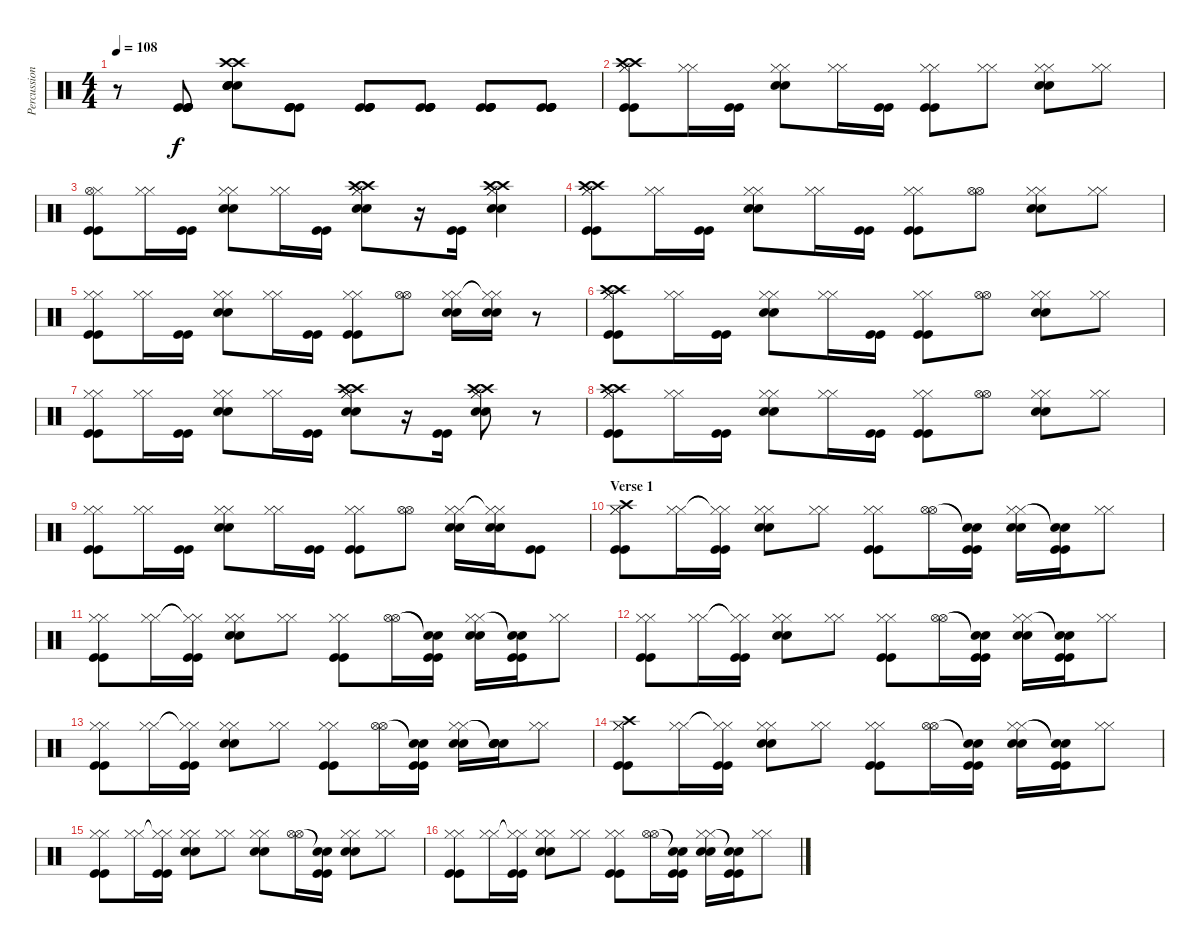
\track ("Percussion" "Percussion") {instrument percussion}
\staff {score}
\articulation defaults
\ts (4 4)
\tempo 108
\clef neutral
\ks c
r.8{dy f} ("Kick (hit)" "Kick (hit)" "Kick (hit)" "Kick (hit)").8 ("Crash high (hit)" "Crash high (hit)" "Electric Snare (hit)" "Electric Snare (hit)" "Electric Snare (hit)" "Electric Snare (hit)").8 ("Kick (hit)" "Kick (hit)" "Kick (hit)" "Kick (hit)").8 ("Kick (hit)" "Kick (hit)" "Kick (hit)" "Kick (hit)").8 ("Kick (hit)" "Kick (hit)" "Kick (hit)" "Kick (hit)").8 ("Kick (hit)" "Kick (hit)" "Kick (hit)" "Kick (hit)").8 ("Kick (hit)" "Kick (hit)" "Kick (hit)" "Kick (hit)").8 |
("Hi-Hat (closed)" "Hi-Hat (closed)" "Kick (hit)" "Kick (hit)" "Crash high (hit)" "Crash high (hit)").8 ("Hi-Hat (closed)" "Hi-Hat (closed)").16 ("Kick (hit)" "Kick (hit)").16 ("Hi-Hat (closed)" "Hi-Hat (closed)" "Electric Snare (hit)" "Electric Snare (hit)").8 ("Hi-Hat (closed)" "Hi-Hat (closed)").16 ("Kick (hit)" "Kick (hit)").16 ("Hi-Hat (closed)" "Hi-Hat (closed)" "Kick (hit)" "Kick (hit)").8 ("Hi-Hat (closed)" "Hi-Hat (closed)").8 ("Hi-Hat (closed)" "Hi-Hat (closed)" "Electric Snare (hit)" "Electric Snare (hit)").8 ("Hi-Hat (closed)" "Hi-Hat (closed)").8 |
("Hi-Hat (closed)" "Hi-Hat (open)" "Kick (hit)" "Kick (hit)").8 ("Hi-Hat (closed)" "Hi-Hat (closed)").16 ("Kick (hit)" "Kick (hit)").16 ("Hi-Hat (closed)" "Hi-Hat (closed)" "Electric Snare (hit)" "Electric Snare (hit)").8 ("Hi-Hat (closed)" "Hi-Hat (closed)").16 ("Kick (hit)" "Kick (hit)").16 ("Hi-Hat (closed)" "Hi-Hat (closed)" "Electric Snare (hit)" "Electric Snare (hit)" "Crash high (hit)" "Crash high (hit)").8 r.16 ("Kick (hit)" "Kick (hit)").16 ("Hi-Hat (closed)" "Hi-Hat (closed)" "Electric Snare (hit)" "Electric Snare (hit)" "Crash high (hit)" "Crash high (hit)").4 |
("Hi-Hat (closed)" "Hi-Hat (closed)" "Kick (hit)" "Kick (hit)" "Crash high (hit)" "Crash high (hit)").8 ("Hi-Hat (closed)" "Hi-Hat (closed)").16 ("Kick (hit)" "Kick (hit)").16 ("Hi-Hat (closed)" "Hi-Hat (closed)" "Electric Snare (hit)" "Electric Snare (hit)").8 ("Hi-Hat (closed)" "Hi-Hat (closed)").16 ("Kick (hit)" "Kick (hit)").16 ("Hi-Hat (closed)" "Hi-Hat (closed)" "Kick (hit)" "Kick (hit)").8 ("Hi-Hat (open)" "Hi-Hat (open)").8 ("Hi-Hat (closed)" "Hi-Hat (closed)" "Electric Snare (hit)" "Electric Snare (hit)").8 ("Hi-Hat (closed)" "Hi-Hat (closed)").8 |
("Hi-Hat (closed)" "Hi-Hat (closed)" "Kick (hit)" "Kick (hit)").8 ("Hi-Hat (closed)" "Hi-Hat (closed)").16 ("Kick (hit)" "Kick (hit)").16 ("Hi-Hat (closed)" "Hi-Hat (closed)" "Electric Snare (hit)" "Electric Snare (hit)").8 ("Hi-Hat (closed)" "Hi-Hat (closed)").16 ("Kick (hit)" "Kick (hit)").16 ("Hi-Hat (closed)" "Hi-Hat (closed)" "Kick (hit)" "Kick (hit)").8 ("Hi-Hat (open)" "Hi-Hat (open)").8 ("Hi-Hat (closed)" "Hi-Hat (closed)" "Electric Snare (hit)" "Electric Snare (hit)").16 ("Hi-Hat (closed)"{t} "Hi-Hat (closed)"{t} "Electric Snare (hit)" "Electric Snare (hit)").16 r.8 |
("Hi-Hat (closed)" "Hi-Hat (closed)" "Kick (hit)" "Kick (hit)" "Crash high (hit)" "Crash high (hit)").8 ("Hi-Hat (closed)" "Hi-Hat (closed)").16 ("Kick (hit)" "Kick (hit)").16 ("Hi-Hat (closed)" "Hi-Hat (closed)" "Electric Snare (hit)" "Electric Snare (hit)").8 ("Hi-Hat (closed)" "Hi-Hat (closed)").16 ("Kick (hit)" "Kick (hit)").16 ("Hi-Hat (closed)" "Hi-Hat (closed)" "Kick (hit)" "Kick (hit)").8 ("Hi-Hat (open)" "Hi-Hat (open)").8 ("Hi-Hat (closed)" "Hi-Hat (closed)" "Electric Snare (hit)" "Electric Snare (hit)").8 ("Hi-Hat (closed)" "Hi-Hat (closed)").8 |
("Hi-Hat (closed)" "Hi-Hat (closed)" "Kick (hit)" "Kick (hit)").8 ("Hi-Hat (closed)" "Hi-Hat (closed)").16 ("Kick (hit)" "Kick (hit)").16 ("Hi-Hat (closed)" "Hi-Hat (closed)" "Electric Snare (hit)" "Electric Snare (hit)").8 ("Hi-Hat (closed)" "Hi-Hat (closed)").16 ("Kick (hit)" "Kick (hit)").16 ("Hi-Hat (closed)" "Hi-Hat (closed)" "Electric Snare (hit)" "Electric Snare (hit)" "Crash high (hit)" "Crash high (hit)").8 r.16 ("Kick (hit)" "Kick (hit)").16 ("Hi-Hat (closed)" "Hi-Hat (closed)" "Electric Snare (hit)" "Electric Snare (hit)" "Crash high (hit)" "Crash high (hit)").8 r.8 |
("Hi-Hat (closed)" "Hi-Hat (closed)" "Kick (hit)" "Kick (hit)" "Crash high (hit)" "Crash high (hit)").8 ("Hi-Hat (closed)" "Hi-Hat (closed)").16 ("Kick (hit)" "Kick (hit)").16 ("Hi-Hat (closed)" "Hi-Hat (closed)" "Electric Snare (hit)" "Electric Snare (hit)").8 ("Hi-Hat (closed)" "Hi-Hat (closed)").16 ("Kick (hit)" "Kick (hit)").16 ("Hi-Hat (closed)" "Hi-Hat (closed)" "Kick (hit)" "Kick (hit)").8 ("Hi-Hat (open)" "Hi-Hat (open)").8 ("Hi-Hat (closed)" "Hi-Hat (closed)" "Electric Snare (hit)" "Electric Snare (hit)").8 ("Hi-Hat (closed)" "Hi-Hat (closed)").8 |
("Hi-Hat (closed)" "Hi-Hat (closed)" "Kick (hit)" "Kick (hit)").8 ("Hi-Hat (closed)" "Hi-Hat (closed)").16 ("Kick (hit)" "Kick (hit)").16 ("Hi-Hat (closed)" "Hi-Hat (closed)" "Electric Snare (hit)" "Electric Snare (hit)").8 ("Hi-Hat (closed)" "Hi-Hat (closed)").16 ("Kick (hit)" "Kick (hit)").16 ("Hi-Hat (closed)" "Hi-Hat (closed)" "Kick (hit)" "Kick (hit)").8 ("Hi-Hat (open)" "Hi-Hat (open)").8 ("Hi-Hat (closed)" "Hi-Hat (closed)" "Electric Snare (hit)" "Electric Snare (hit)").16 ("Hi-Hat (closed)"{t} "Hi-Hat (closed)"{t} "Electric Snare (hit)" "Electric Snare (hit)").16 ("Kick (hit)" "Kick (hit)").8 |
\section ("" "Verse 1")
("Hi-Hat (closed)" "Hi-Hat (closed)" "Kick (hit)" "Kick (hit)" "Crash high (hit)").8 ("Hi-Hat (closed)" "Hi-Hat (closed)").16 ("Hi-Hat (closed)"{t} "Hi-Hat (closed)"{t} "Kick (hit)" "Kick (hit)").16 ("Hi-Hat (closed)" "Hi-Hat (closed)" "Electric Snare (hit)" "Electric Snare (hit)").8 ("Hi-Hat (closed)" "Hi-Hat (closed)").8 ("Hi-Hat (closed)" "Hi-Hat (closed)" "Kick (hit)" "Kick (hit)").8 ("Hi-Hat (open)" "Hi-Hat (open)").16 ("Snare (hit)"{t} "Snare (hit)"{t} "Kick (hit)" "Kick (hit)").16 ("Hi-Hat (closed)" "Hi-Hat (closed)" "Electric Snare (hit)" "Electric Snare (hit)").16 ("Snare (hit)"{t} "Snare (hit)"{t} "Kick (hit)" "Kick (hit)").16 ("Hi-Hat (closed)" "Hi-Hat (closed)").8 |
("Hi-Hat (closed)" "Hi-Hat (closed)" "Kick (hit)" "Kick (hit)").8 ("Hi-Hat (closed)" "Hi-Hat (closed)").16 ("Hi-Hat (closed)"{t} "Hi-Hat (closed)"{t} "Kick (hit)" "Kick (hit)").16 ("Hi-Hat (closed)" "Hi-Hat (closed)" "Electric Snare (hit)" "Electric Snare (hit)").8 ("Hi-Hat (closed)" "Hi-Hat (closed)").8 ("Hi-Hat (closed)" "Hi-Hat (closed)" "Kick (hit)" "Kick (hit)").8 ("Hi-Hat (open)" "Hi-Hat (open)").16 ("Snare (hit)"{t} "Snare (hit)"{t} "Kick (hit)" "Kick (hit)").16 ("Hi-Hat (closed)" "Hi-Hat (closed)" "Electric Snare (hit)" "Electric Snare (hit)").16 ("Snare (hit)"{t} "Snare (hit)"{t} "Kick (hit)" "Kick (hit)").16 ("Hi-Hat (closed)" "Hi-Hat (closed)").8 |
("Hi-Hat (closed)" "Hi-Hat (closed)" "Kick (hit)" "Kick (hit)").8 ("Hi-Hat (closed)" "Hi-Hat (closed)").16 ("Hi-Hat (closed)"{t} "Hi-Hat (closed)"{t} "Kick (hit)" "Kick (hit)").16 ("Hi-Hat (closed)" "Hi-Hat (closed)" "Electric Snare (hit)" "Electric Snare (hit)").8 ("Hi-Hat (closed)" "Hi-Hat (closed)").8 ("Hi-Hat (closed)" "Hi-Hat (closed)" "Kick (hit)" "Kick (hit)").8 ("Hi-Hat (open)" "Hi-Hat (open)").16 ("Snare (hit)"{t} "Snare (hit)"{t} "Kick (hit)" "Kick (hit)").16 ("Hi-Hat (closed)" "Hi-Hat (closed)" "Electric Snare (hit)" "Electric Snare (hit)").16 ("Snare (hit)"{t} "Snare (hit)"{t} "Kick (hit)" "Kick (hit)").16 ("Hi-Hat (closed)" "Hi-Hat (closed)").8 |
("Hi-Hat (closed)" "Hi-Hat (closed)" "Kick (hit)" "Kick (hit)").8 ("Hi-Hat (closed)" "Hi-Hat (closed)").16 ("Hi-Hat (closed)"{t} "Hi-Hat (closed)"{t} "Kick (hit)" "Kick (hit)").16 ("Hi-Hat (closed)" "Hi-Hat (closed)" "Electric Snare (hit)" "Electric Snare (hit)").8 ("Hi-Hat (closed)" "Hi-Hat (closed)").8 ("Hi-Hat (closed)" "Hi-Hat (closed)" "Kick (hit)" "Kick (hit)").8 ("Hi-Hat (open)" "Hi-Hat (open)").16 ("Snare (hit)"{t} "Snare (hit)"{t} "Kick (hit)" "Kick (hit)").16 ("Hi-Hat (closed)" "Hi-Hat (closed)" "Electric Snare (hit)" "Electric Snare (hit)").16 ("Snare (hit)"{t} "Snare (hit)"{t} "Electric Snare (hit)" "Electric Snare (hit)").16 ("Hi-Hat (closed)" "Hi-Hat (closed)").8 |
("Hi-Hat (closed)" "Hi-Hat (closed)" "Kick (hit)" "Kick (hit)" "Crash high (hit)").8 ("Hi-Hat (closed)" "Hi-Hat (closed)").16 ("Hi-Hat (closed)"{t} "Hi-Hat (closed)"{t} "Kick (hit)" "Kick (hit)").16 ("Hi-Hat (closed)" "Hi-Hat (closed)" "Electric Snare (hit)" "Electric Snare (hit)").8 ("Hi-Hat (closed)" "Hi-Hat (closed)").8 ("Hi-Hat (closed)" "Hi-Hat (closed)" "Kick (hit)" "Kick (hit)").8 ("Hi-Hat (open)" "Hi-Hat (open)").16 ("Snare (hit)"{t} "Snare (hit)"{t} "Kick (hit)" "Kick (hit)").16 ("Hi-Hat (closed)" "Hi-Hat (closed)" "Electric Snare (hit)" "Electric Snare (hit)").16 ("Snare (hit)"{t} "Snare (hit)"{t} "Kick (hit)" "Kick (hit)").16 ("Hi-Hat (closed)" "Hi-Hat (closed)").8 |
("Hi-Hat (closed)" "Hi-Hat (closed)" "Kick (hit)" "Kick (hit)").8 ("Hi-Hat (closed)" "Hi-Hat (closed)").16 ("Hi-Hat (closed)"{t} "Hi-Hat (closed)"{t} "Kick (hit)" "Kick (hit)").16 ("Hi-Hat (closed)" "Hi-Hat (closed)" "Electric Snare (hit)" "Electric Snare (hit)").8 ("Hi-Hat (closed)" "Hi-Hat (closed)").8 ("Hi-Hat (closed)" "Hi-Hat (closed)" "Electric Snare (hit)" "Electric Snare (hit)").8 ("Hi-Hat (open)" "Hi-Hat (open)").16 ("Snare (hit)"{t} "Snare (hit)"{t} "Kick (hit)" "Kick (hit)").16 ("Hi-Hat (closed)" "Hi-Hat (closed)" "Electric Snare (hit)" "Electric Snare (hit)").8 ("Hi-Hat (closed)" "Hi-Hat (closed)").8 |
("Hi-Hat (closed)" "Hi-Hat (closed)" "Kick (hit)" "Kick (hit)").8 ("Hi-Hat (closed)" "Hi-Hat (closed)").16 ("Hi-Hat (closed)"{t} "Hi-Hat (closed)"{t} "Kick (hit)" "Kick (hit)").16 ("Hi-Hat (closed)" "Hi-Hat (closed)" "Electric Snare (hit)" "Electric Snare (hit)").8 ("Hi-Hat (closed)" "Hi-Hat (closed)").8 ("Hi-Hat (closed)" "Hi-Hat (closed)" "Kick (hit)" "Kick (hit)").8 ("Hi-Hat (open)" "Hi-Hat (open)").16 ("Snare (hit)"{t} "Snare (hit)"{t} "Kick (hit)" "Kick (hit)").16 ("Hi-Hat (closed)" "Hi-Hat (closed)" "Electric Snare (hit)" "Electric Snare (hit)").16 ("Snare (hit)"{t} "Snare (hit)"{t} "Kick (hit)" "Kick (hit)").16 ("Hi-Hat (closed)" "Hi-Hat (closed)").8
